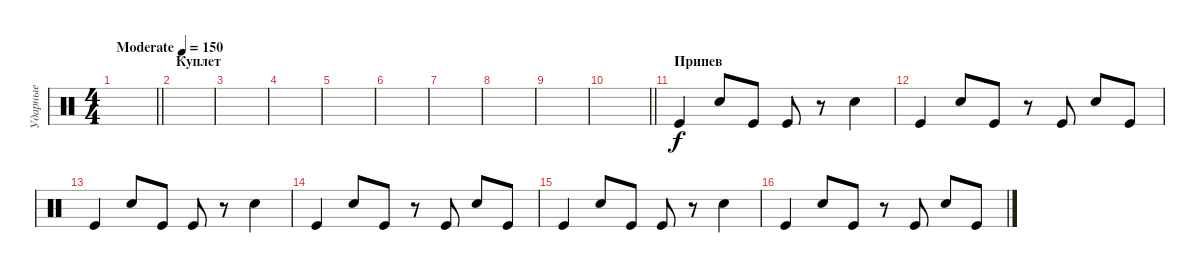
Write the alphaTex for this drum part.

\track ("Ударные" "Ударные") {instrument percussion}
\staff {score}
\articulation defaults
\ts (4 4)
\tempo (150 "Moderate")
\clef neutral
\barLineRight lightlight
\ks c
|
\section ("" "Куплет")
|
|
|
|
|
|
|
|
\barLineRight lightlight
|
\section ("" "Припев")
"Kick (hit)".4 "Snare (hit) 2".8 "Kick (hit)".8 "Kick (hit)".8 r.8 "Snare (hit) 2".4 |
"Kick (hit)".4 "Snare (hit) 2".8 "Kick (hit)".8 r.8 "Kick (hit)".8 "Snare (hit) 2".8 "Kick (hit)".8 |
"Kick (hit)".4 "Snare (hit) 2".8 "Kick (hit)".8 "Kick (hit)".8 r.8 "Snare (hit) 2".4 |
"Kick (hit)".4 "Snare (hit) 2".8 "Kick (hit)".8 r.8 "Kick (hit)".8 "Snare (hit) 2".8 "Kick (hit)".8 |
"Kick (hit)".4 "Snare (hit) 2".8 "Kick (hit)".8 "Kick (hit)".8 r.8 "Snare (hit) 2".4 |
"Kick (hit)".4 "Snare (hit) 2".8 "Kick (hit)".8 r.8 "Kick (hit)".8 "Snare (hit) 2".8 "Kick (hit)".8
